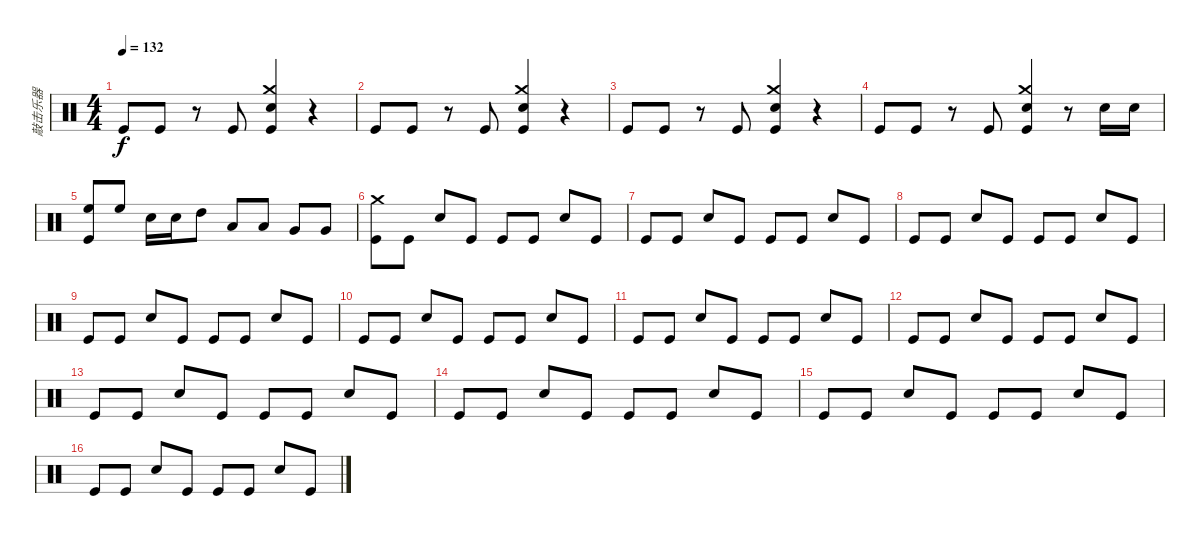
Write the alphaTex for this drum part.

\track ("敲击乐器" "敲击乐器") {instrument percussion}
\staff {score}
\articulation defaults
\ts (4 4)
\tempo 132
\clef neutral
\ks c "Kick (hit)".8{dy f} "Kick (hit)".8
r.8 "Kick (hit)".8 ("Crash medium (hit)" "Snare (hit) 2" "Kick (hit)").4 r.4 |
"Kick (hit)".8 "Kick (hit)".8 r.8 "Kick (hit)".8 ("Crash medium (hit)" "Snare (hit) 2" "Kick (hit)").4 r.4 |
"Kick (hit)".8 "Kick (hit)".8 r.8 "Kick (hit)".8 ("Crash medium (hit)" "Snare (hit) 2" "Kick (hit)").4 r.4 |
"Kick (hit)".8 "Kick (hit)".8 r.8 "Kick (hit)".8 ("Crash medium (hit)" "Snare (hit) 2" "Kick (hit)").4 r.8 "Snare (hit) 2".16 "Snare (hit) 2".16 |
("High Floor Tom (hit)" "Kick (hit)").8 "High Floor Tom (hit)".8 "Snare (hit) 2".16 "Snare (hit) 2".16 "High Tom (hit)".8 "Low Tom (hit)".8 "Low Tom (hit)".8 "Very Low Tom (hit)".8 "Very Low Tom (hit)".8 |
("Crash medium (hit)" "Kick (hit)").8 "Kick (hit)".8 "Snare (hit) 2".8 "Kick (hit)".8 "Kick (hit)".8 "Kick (hit)".8 "Snare (hit) 2".8 "Kick (hit)".8 |
"Kick (hit)".8 "Kick (hit)".8 "Snare (hit) 2".8 "Kick (hit)".8 "Kick (hit)".8 "Kick (hit)".8 "Snare (hit) 2".8 "Kick (hit)".8 |
"Kick (hit)".8 "Kick (hit)".8 "Snare (hit) 2".8 "Kick (hit)".8 "Kick (hit)".8 "Kick (hit)".8 "Snare (hit) 2".8 "Kick (hit)".8 |
"Kick (hit)".8 "Kick (hit)".8 "Snare (hit) 2".8 "Kick (hit)".8 "Kick (hit)".8 "Kick (hit)".8 "Snare (hit) 2".8 "Kick (hit)".8 |
"Kick (hit)".8 "Kick (hit)".8 "Snare (hit) 2".8 "Kick (hit)".8 "Kick (hit)".8 "Kick (hit)".8 "Snare (hit) 2".8 "Kick (hit)".8 |
"Kick (hit)".8 "Kick (hit)".8 "Snare (hit) 2".8 "Kick (hit)".8 "Kick (hit)".8 "Kick (hit)".8 "Snare (hit) 2".8 "Kick (hit)".8 |
"Kick (hit)".8 "Kick (hit)".8 "Snare (hit) 2".8 "Kick (hit)".8 "Kick (hit)".8 "Kick (hit)".8 "Snare (hit) 2".8 "Kick (hit)".8 |
"Kick (hit)".8 "Kick (hit)".8 "Snare (hit) 2".8 "Kick (hit)".8 "Kick (hit)".8 "Kick (hit)".8 "Snare (hit) 2".8 "Kick (hit)".8 |
"Kick (hit)".8 "Kick (hit)".8 "Snare (hit) 2".8 "Kick (hit)".8 "Kick (hit)".8 "Kick (hit)".8 "Snare (hit) 2".8 "Kick (hit)".8 |
"Kick (hit)".8 "Kick (hit)".8 "Snare (hit) 2".8 "Kick (hit)".8 "Kick (hit)".8 "Kick (hit)".8 "Snare (hit) 2".8 "Kick (hit)".8 |
"Kick (hit)".8 "Kick (hit)".8 "Snare (hit) 2".8 "Kick (hit)".8 "Kick (hit)".8 "Kick (hit)".8 "Snare (hit) 2".8 "Kick (hit)".8
